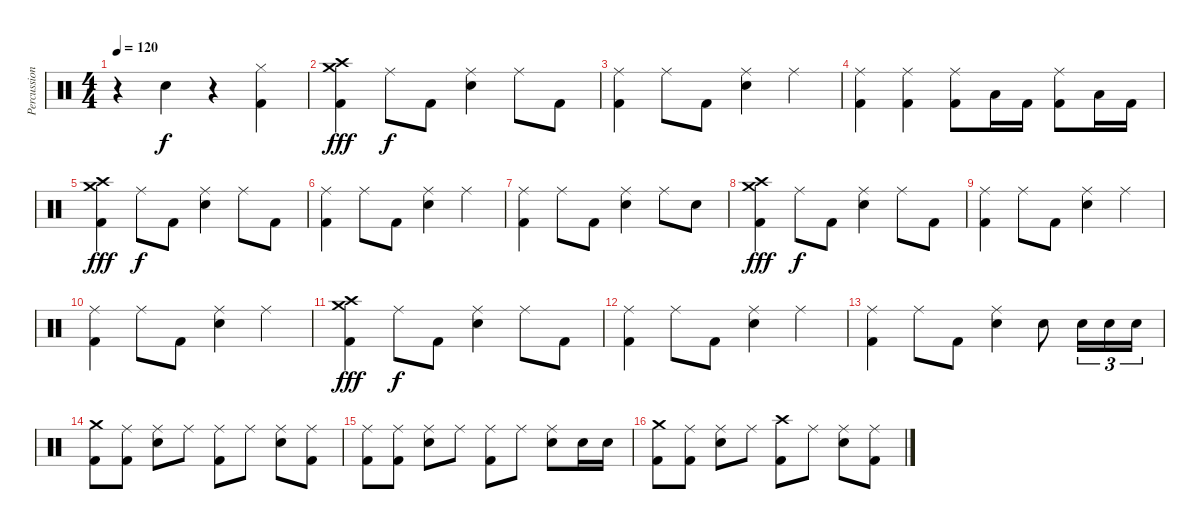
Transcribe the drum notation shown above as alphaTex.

\track ("Percussions" "Percussion") {instrument percussion}
\staff {score}
\articulation defaults
\ts (4 4)
\tempo 120
\clef neutral
\ks c
r.4{dy f} "Electric Snare (hit)".4 r.4 ("Hi-Hat (closed)" "Kick (hit) 2").4 |
("Crash medium (hit)" "Crash high (hit)" "Kick (hit) 2").4{dy fff} "Ride (middle)".8{dy f} "Kick (hit) 2".8 ("Ride (middle)" "Electric Snare (hit)").4 "Ride (middle)".8 "Kick (hit) 2".8 |
("Ride (middle)" "Kick (hit) 2").4 "Ride (middle)".8 "Kick (hit) 2".8 ("Ride (middle)" "Electric Snare (hit)").4 "Ride (middle)".4 |
("Ride (middle)" "Kick (hit) 2").4 ("Ride (middle)" "Kick (hit) 2").4 ("Ride (middle)" "Kick (hit) 2").8 "Low Floor Tom (hit)".16 "Kick (hit) 2".16 ("Ride (middle)" "Kick (hit) 2").8 "Low Floor Tom (hit)".16 "Kick (hit) 2".16 |
("Crash medium (hit)" "Crash high (hit)" "Kick (hit) 2").4{dy fff} "Ride (middle)".8{dy f} "Kick (hit) 2".8 ("Ride (middle)" "Electric Snare (hit)").4 "Ride (middle)".8 "Kick (hit) 2".8 |
("Ride (middle)" "Kick (hit) 2").4 "Ride (middle)".8 "Kick (hit) 2".8 ("Ride (middle)" "Electric Snare (hit)").4 "Ride (middle)".4 |
("Ride (middle)" "Kick (hit) 2").4 "Ride (middle)".8 "Kick (hit) 2".8 ("Ride (middle)" "Electric Snare (hit)").4 "Ride (middle)".8 "Electric Snare (hit)".8 |
("Crash medium (hit)" "Crash high (hit)" "Kick (hit) 2").4{dy fff} "Ride (middle)".8{dy f} "Kick (hit) 2".8 ("Ride (middle)" "Electric Snare (hit)").4 "Ride (middle)".8 "Kick (hit) 2".8 |
("Ride (middle)" "Kick (hit) 2").4 "Ride (middle)".8 "Kick (hit) 2".8 ("Ride (middle)" "Electric Snare (hit)").4 "Ride (middle)".4 |
("Ride (middle)" "Kick (hit) 2").4 "Ride (middle)".8 "Kick (hit) 2".8 ("Ride (middle)" "Electric Snare (hit)").4 "Ride (middle)".4 |
("Crash medium (hit)" "Crash high (hit)" "Kick (hit) 2").4{dy fff} "Ride (middle)".8{dy f} "Kick (hit) 2".8 ("Ride (middle)" "Electric Snare (hit)").4 "Ride (middle)".8 "Kick (hit) 2".8 |
("Ride (middle)" "Kick (hit) 2").4 "Ride (middle)".8 "Kick (hit) 2".8 ("Ride (middle)" "Electric Snare (hit)").4 "Ride (middle)".4 |
("Ride (middle)" "Kick (hit) 2").4 "Ride (middle)".8 "Kick (hit) 2".8 ("Ride (middle)" "Electric Snare (hit)").4 "Electric Snare (hit)".8 "Electric Snare (hit)".16{tu (3 2)} "Electric Snare (hit)".16{tu (3 2)} "Electric Snare (hit)".16{tu (3 2)} |
("Crash medium (hit)" "Kick (hit) 2").8 ("Ride (middle)" "Kick (hit) 2").8 ("Ride (middle)" "Electric Snare (hit)").8 "Ride (middle)".8 ("Ride (middle)" "Kick (hit) 2").8 "Ride (middle)".8 ("Ride (middle)" "Electric Snare (hit)").8 ("Ride (middle)" "Kick (hit) 2").8 |
("Ride (middle)" "Kick (hit) 2").8 ("Ride (middle)" "Kick (hit) 2").8 ("Ride (middle)" "Electric Snare (hit)").8 "Ride (middle)".8 ("Ride (middle)" "Kick (hit) 2").8 "Ride (middle)".8 ("Ride (middle)" "Electric Snare (hit)").8 "Electric Snare (hit)".16 "Electric Snare (hit)".16 |
("Crash medium (hit)" "Kick (hit) 2").8 ("Ride (middle)" "Kick (hit) 2").8 ("Ride (middle)" "Electric Snare (hit)").8 "Ride (middle)".8 ("Crash high (hit)" "Kick (hit) 2").8 "Ride (middle)".8 ("Ride (middle)" "Electric Snare (hit)").8 ("Ride (middle)" "Kick (hit) 2").8
